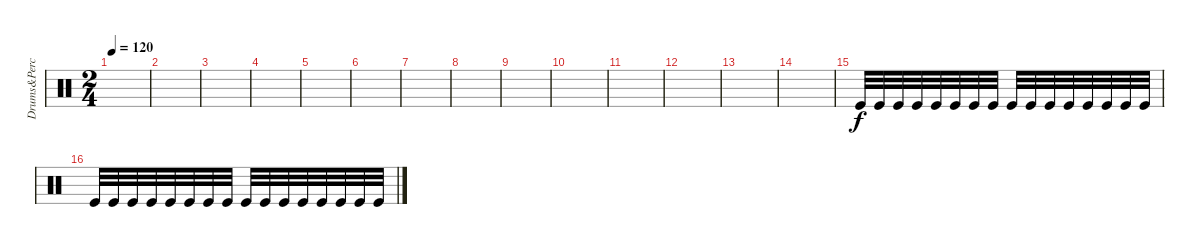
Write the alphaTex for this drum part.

\track ("Drums&Percusion" "Drums&Perc") {instrument percussion}
\staff {score}
\articulation defaults
\ts (2 4)
\tempo 120
\clef neutral
\ks c
|
|
|
|
|
|
|
|
|
|
|
|
|
|
"Kick (hit)".32 "Kick (hit)".32 "Kick (hit)".32 "Kick (hit)".32 "Kick (hit)".32 "Kick (hit)".32 "Kick (hit)".32 "Kick (hit)".32 "Kick (hit)".32 "Kick (hit)".32 "Kick (hit)".32 "Kick (hit)".32 "Kick (hit)".32 "Kick (hit)".32 "Kick (hit)".32 "Kick (hit)".32 |
"Kick (hit)".32 "Kick (hit)".32 "Kick (hit)".32 "Kick (hit)".32 "Kick (hit)".32 "Kick (hit)".32 "Kick (hit)".32 "Kick (hit)".32 "Kick (hit)".32 "Kick (hit)".32 "Kick (hit)".32 "Kick (hit)".32 "Kick (hit)".32 "Kick (hit)".32 "Kick (hit)".32 "Kick (hit)".32
